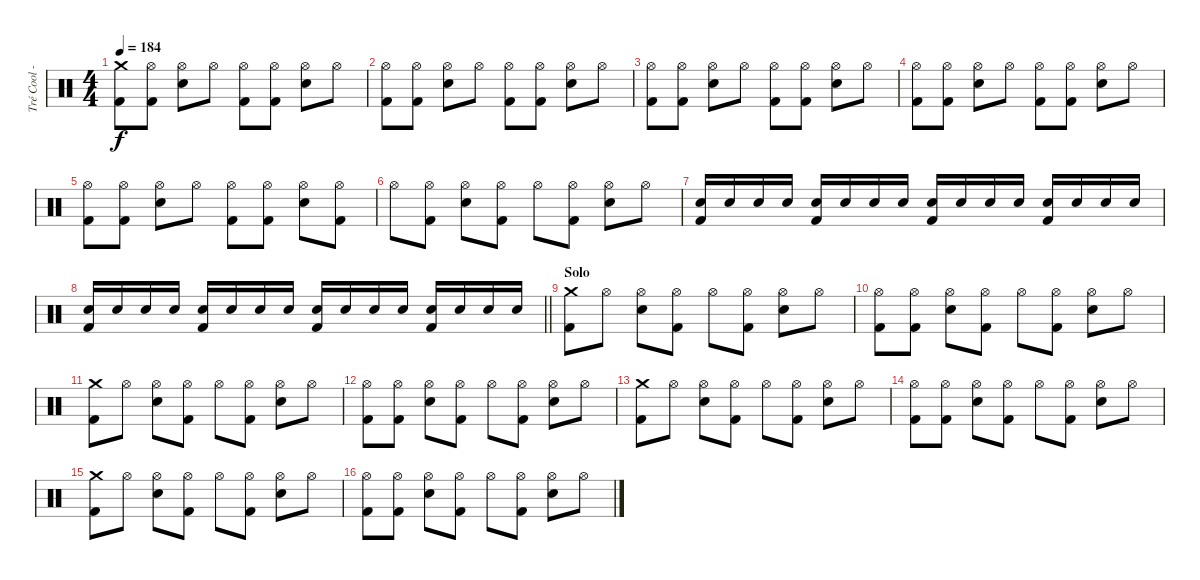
\track ("Tré Cool - Drums" "Tré Cool -") {instrument percussion}
\staff {score}
\articulation defaults
\ts (4 4)
\tempo 184
\clef neutral
\ks c
("Crash medium (hit)" "Kick (hit) 2").8{dy f} ("Hi-Hat (open)" "Kick (hit) 2").8 ("Hi-Hat (open)" "Electric Snare (hit)").8 "Hi-Hat (open)".8 ("Hi-Hat (open)" "Kick (hit) 2").8 ("Hi-Hat (open)" "Kick (hit) 2").8 ("Hi-Hat (open)" "Electric Snare (hit)").8 "Hi-Hat (open)".8 |
("Hi-Hat (open)" "Kick (hit) 2").8 ("Hi-Hat (open)" "Kick (hit) 2").8 ("Hi-Hat (open)" "Electric Snare (hit)").8 "Hi-Hat (open)".8 ("Hi-Hat (open)" "Kick (hit) 2").8 ("Hi-Hat (open)" "Kick (hit) 2").8 ("Hi-Hat (open)" "Electric Snare (hit)").8 "Hi-Hat (open)".8 |
("Hi-Hat (open)" "Kick (hit) 2").8 ("Hi-Hat (open)" "Kick (hit) 2").8 ("Hi-Hat (open)" "Electric Snare (hit)").8 "Hi-Hat (open)".8 ("Hi-Hat (open)" "Kick (hit) 2").8 ("Hi-Hat (open)" "Kick (hit) 2").8 ("Hi-Hat (open)" "Electric Snare (hit)").8 "Hi-Hat (open)".8 |
("Hi-Hat (open)" "Kick (hit) 2").8 ("Hi-Hat (open)" "Kick (hit) 2").8 ("Hi-Hat (open)" "Electric Snare (hit)").8 "Hi-Hat (open)".8 ("Hi-Hat (open)" "Kick (hit) 2").8 ("Hi-Hat (open)" "Kick (hit) 2").8 ("Hi-Hat (open)" "Electric Snare (hit)").8 "Hi-Hat (open)".8 |
("Hi-Hat (open)" "Kick (hit) 2").8 ("Hi-Hat (open)" "Kick (hit) 2").8 ("Hi-Hat (open)" "Electric Snare (hit)").8 "Hi-Hat (open)".8 ("Hi-Hat (open)" "Kick (hit) 2").8 ("Hi-Hat (open)" "Kick (hit) 2").8 ("Hi-Hat (open)" "Electric Snare (hit)").8 ("Hi-Hat (open)" "Kick (hit) 2").8 |
"Hi-Hat (open)".8 ("Hi-Hat (open)" "Kick (hit) 2").8 ("Hi-Hat (open)" "Electric Snare (hit)").8 ("Hi-Hat (open)" "Kick (hit) 2").8 "Hi-Hat (open)".8 ("Hi-Hat (open)" "Kick (hit) 2").8 ("Hi-Hat (open)" "Electric Snare (hit)").8 "Hi-Hat (open)".8 |
("Electric Snare (hit)" "Kick (hit) 2").16 "Electric Snare (hit)".16 "Electric Snare (hit)".16 "Electric Snare (hit)".16 ("Electric Snare (hit)" "Kick (hit) 2").16 "Electric Snare (hit)".16 "Electric Snare (hit)".16 "Electric Snare (hit)".16 ("Electric Snare (hit)" "Kick (hit) 2").16 "Electric Snare (hit)".16 "Electric Snare (hit)".16 "Electric Snare (hit)".16 ("Electric Snare (hit)" "Kick (hit) 2").16 "Electric Snare (hit)".16 "Electric Snare (hit)".16 "Electric Snare (hit)".16 |
\barLineRight lightlight
("Electric Snare (hit)" "Kick (hit) 2").16 "Electric Snare (hit)".16 "Electric Snare (hit)".16 "Electric Snare (hit)".16 ("Electric Snare (hit)" "Kick (hit) 2").16 "Electric Snare (hit)".16 "Electric Snare (hit)".16 "Electric Snare (hit)".16 ("Electric Snare (hit)" "Kick (hit) 2").16 "Electric Snare (hit)".16 "Electric Snare (hit)".16 "Electric Snare (hit)".16 ("Electric Snare (hit)" "Kick (hit) 2").16 "Electric Snare (hit)".16 "Electric Snare (hit)".16 "Electric Snare (hit)".16 |
\section ("" "Solo")
("Crash medium (hit)" "Kick (hit) 2").8 "Hi-Hat (open)".8 ("Hi-Hat (open)" "Electric Snare (hit)").8 ("Hi-Hat (open)" "Kick (hit) 2").8 "Hi-Hat (open)".8 ("Hi-Hat (open)" "Kick (hit) 2").8 ("Hi-Hat (open)" "Electric Snare (hit)").8 "Hi-Hat (open)".8 |
("Hi-Hat (open)" "Kick (hit) 2").8 ("Hi-Hat (open)" "Kick (hit) 2").8 ("Hi-Hat (open)" "Electric Snare (hit)").8 ("Hi-Hat (open)" "Kick (hit) 2").8 "Hi-Hat (open)".8 ("Hi-Hat (open)" "Kick (hit) 2").8 ("Hi-Hat (open)" "Electric Snare (hit)").8 "Hi-Hat (open)".8 |
("Crash medium (hit)" "Kick (hit) 2").8 "Hi-Hat (open)".8 ("Hi-Hat (open)" "Electric Snare (hit)").8 ("Hi-Hat (open)" "Kick (hit) 2").8 "Hi-Hat (open)".8 ("Hi-Hat (open)" "Kick (hit) 2").8 ("Hi-Hat (open)" "Electric Snare (hit)").8 "Hi-Hat (open)".8 |
("Hi-Hat (open)" "Kick (hit) 2").8 ("Hi-Hat (open)" "Kick (hit) 2").8 ("Hi-Hat (open)" "Electric Snare (hit)").8 ("Hi-Hat (open)" "Kick (hit) 2").8 "Hi-Hat (open)".8 ("Hi-Hat (open)" "Kick (hit) 2").8 ("Hi-Hat (open)" "Electric Snare (hit)").8 "Hi-Hat (open)".8 |
("Crash medium (hit)" "Kick (hit) 2").8 "Hi-Hat (open)".8 ("Hi-Hat (open)" "Electric Snare (hit)").8 ("Hi-Hat (open)" "Kick (hit) 2").8 "Hi-Hat (open)".8 ("Hi-Hat (open)" "Kick (hit) 2").8 ("Hi-Hat (open)" "Electric Snare (hit)").8 "Hi-Hat (open)".8 |
("Hi-Hat (open)" "Kick (hit) 2").8 ("Hi-Hat (open)" "Kick (hit) 2").8 ("Hi-Hat (open)" "Electric Snare (hit)").8 ("Hi-Hat (open)" "Kick (hit) 2").8 "Hi-Hat (open)".8 ("Hi-Hat (open)" "Kick (hit) 2").8 ("Hi-Hat (open)" "Electric Snare (hit)").8 "Hi-Hat (open)".8 |
("Crash medium (hit)" "Kick (hit) 2").8 "Hi-Hat (open)".8 ("Hi-Hat (open)" "Electric Snare (hit)").8 ("Hi-Hat (open)" "Kick (hit) 2").8 "Hi-Hat (open)".8 ("Hi-Hat (open)" "Kick (hit) 2").8 ("Hi-Hat (open)" "Electric Snare (hit)").8 "Hi-Hat (open)".8 |
("Hi-Hat (open)" "Kick (hit) 2").8 ("Hi-Hat (open)" "Kick (hit) 2").8 ("Hi-Hat (open)" "Electric Snare (hit)").8 ("Hi-Hat (open)" "Kick (hit) 2").8 "Hi-Hat (open)".8 ("Hi-Hat (open)" "Kick (hit) 2").8 ("Hi-Hat (open)" "Electric Snare (hit)").8 "Hi-Hat (open)".8
